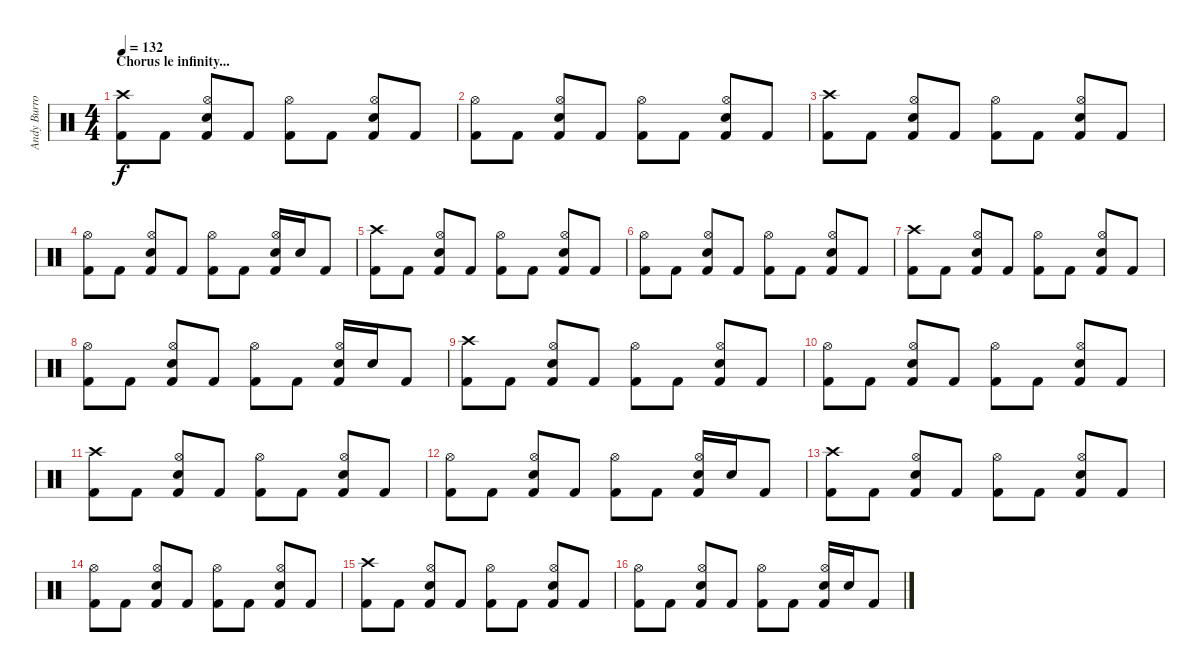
\track ("Andy Burrows" "Andy Burro") {instrument percussion}
\staff {score}
\articulation defaults
\ts (4 4)
\section ("" "Chorus le infinity...")
\tempo 132
\clef neutral
\ks c
("Crash high (hit)" "Kick (hit) 2").8{dy f} "Kick (hit) 2".8 ("Hi-Hat (open)" "Snare (hit) 2" "Kick (hit) 2").8 "Kick (hit) 2".8 ("Hi-Hat (open)" "Kick (hit) 2").8 "Kick (hit) 2".8 ("Hi-Hat (open)" "Snare (hit) 2" "Kick (hit) 2").8 "Kick (hit) 2".8 |
("Hi-Hat (open)" "Kick (hit) 2").8 "Kick (hit) 2".8 ("Hi-Hat (open)" "Snare (hit) 2" "Kick (hit) 2").8 "Kick (hit) 2".8 ("Hi-Hat (open)" "Kick (hit) 2").8 "Kick (hit) 2".8 ("Hi-Hat (open)" "Snare (hit) 2" "Kick (hit) 2").8 "Kick (hit) 2".8 |
("Crash high (hit)" "Kick (hit) 2").8 "Kick (hit) 2".8 ("Hi-Hat (open)" "Snare (hit) 2" "Kick (hit) 2").8 "Kick (hit) 2".8 ("Hi-Hat (open)" "Kick (hit) 2").8 "Kick (hit) 2".8 ("Hi-Hat (open)" "Snare (hit) 2" "Kick (hit) 2").8 "Kick (hit) 2".8 |
("Hi-Hat (open)" "Kick (hit) 2").8 "Kick (hit) 2".8 ("Hi-Hat (open)" "Snare (hit) 2" "Kick (hit) 2").8 "Kick (hit) 2".8 ("Hi-Hat (open)" "Kick (hit) 2").8 "Kick (hit) 2".8 ("Hi-Hat (open)" "Snare (hit) 2" "Kick (hit) 2").16 "Snare (hit) 2".16 "Kick (hit) 2".8 |
("Crash high (hit)" "Kick (hit) 2").8 "Kick (hit) 2".8 ("Hi-Hat (open)" "Snare (hit) 2" "Kick (hit) 2").8 "Kick (hit) 2".8 ("Hi-Hat (open)" "Kick (hit) 2").8 "Kick (hit) 2".8 ("Hi-Hat (open)" "Snare (hit) 2" "Kick (hit) 2").8 "Kick (hit) 2".8 |
("Hi-Hat (open)" "Kick (hit) 2").8 "Kick (hit) 2".8 ("Hi-Hat (open)" "Snare (hit) 2" "Kick (hit) 2").8 "Kick (hit) 2".8 ("Hi-Hat (open)" "Kick (hit) 2").8 "Kick (hit) 2".8 ("Hi-Hat (open)" "Snare (hit) 2" "Kick (hit) 2").8 "Kick (hit) 2".8 |
("Crash high (hit)" "Kick (hit) 2").8 "Kick (hit) 2".8 ("Hi-Hat (open)" "Snare (hit) 2" "Kick (hit) 2").8 "Kick (hit) 2".8 ("Hi-Hat (open)" "Kick (hit) 2").8 "Kick (hit) 2".8 ("Hi-Hat (open)" "Snare (hit) 2" "Kick (hit) 2").8 "Kick (hit) 2".8 |
("Hi-Hat (open)" "Kick (hit) 2").8 "Kick (hit) 2".8 ("Hi-Hat (open)" "Snare (hit) 2" "Kick (hit) 2").8 "Kick (hit) 2".8 ("Hi-Hat (open)" "Kick (hit) 2").8 "Kick (hit) 2".8 ("Hi-Hat (open)" "Snare (hit) 2" "Kick (hit) 2").16 "Snare (hit) 2".16 "Kick (hit) 2".8 |
("Crash high (hit)" "Kick (hit) 2").8 "Kick (hit) 2".8 ("Hi-Hat (open)" "Snare (hit) 2" "Kick (hit) 2").8 "Kick (hit) 2".8 ("Hi-Hat (open)" "Kick (hit) 2").8 "Kick (hit) 2".8 ("Hi-Hat (open)" "Snare (hit) 2" "Kick (hit) 2").8 "Kick (hit) 2".8 |
("Hi-Hat (open)" "Kick (hit) 2").8 "Kick (hit) 2".8 ("Hi-Hat (open)" "Snare (hit) 2" "Kick (hit) 2").8 "Kick (hit) 2".8 ("Hi-Hat (open)" "Kick (hit) 2").8 "Kick (hit) 2".8 ("Hi-Hat (open)" "Snare (hit) 2" "Kick (hit) 2").8 "Kick (hit) 2".8 |
("Crash high (hit)" "Kick (hit) 2").8 "Kick (hit) 2".8 ("Hi-Hat (open)" "Snare (hit) 2" "Kick (hit) 2").8 "Kick (hit) 2".8 ("Hi-Hat (open)" "Kick (hit) 2").8 "Kick (hit) 2".8 ("Hi-Hat (open)" "Snare (hit) 2" "Kick (hit) 2").8 "Kick (hit) 2".8 |
("Hi-Hat (open)" "Kick (hit) 2").8 "Kick (hit) 2".8 ("Hi-Hat (open)" "Snare (hit) 2" "Kick (hit) 2").8 "Kick (hit) 2".8 ("Hi-Hat (open)" "Kick (hit) 2").8 "Kick (hit) 2".8 ("Hi-Hat (open)" "Snare (hit) 2" "Kick (hit) 2").16 "Snare (hit) 2".16 "Kick (hit) 2".8 |
("Crash high (hit)" "Kick (hit) 2").8 "Kick (hit) 2".8 ("Hi-Hat (open)" "Snare (hit) 2" "Kick (hit) 2").8 "Kick (hit) 2".8 ("Hi-Hat (open)" "Kick (hit) 2").8 "Kick (hit) 2".8 ("Hi-Hat (open)" "Snare (hit) 2" "Kick (hit) 2").8 "Kick (hit) 2".8 |
("Hi-Hat (open)" "Kick (hit) 2").8 "Kick (hit) 2".8 ("Hi-Hat (open)" "Snare (hit) 2" "Kick (hit) 2").8 "Kick (hit) 2".8 ("Hi-Hat (open)" "Kick (hit) 2").8 "Kick (hit) 2".8 ("Hi-Hat (open)" "Snare (hit) 2" "Kick (hit) 2").8 "Kick (hit) 2".8 |
("Crash high (hit)" "Kick (hit) 2").8 "Kick (hit) 2".8 ("Hi-Hat (open)" "Snare (hit) 2" "Kick (hit) 2").8 "Kick (hit) 2".8 ("Hi-Hat (open)" "Kick (hit) 2").8 "Kick (hit) 2".8 ("Hi-Hat (open)" "Snare (hit) 2" "Kick (hit) 2").8 "Kick (hit) 2".8 |
("Hi-Hat (open)" "Kick (hit) 2").8 "Kick (hit) 2".8 ("Hi-Hat (open)" "Snare (hit) 2" "Kick (hit) 2").8 "Kick (hit) 2".8 ("Hi-Hat (open)" "Kick (hit) 2").8 "Kick (hit) 2".8 ("Hi-Hat (open)" "Snare (hit) 2" "Kick (hit) 2").16 "Snare (hit) 2".16 "Kick (hit) 2".8
